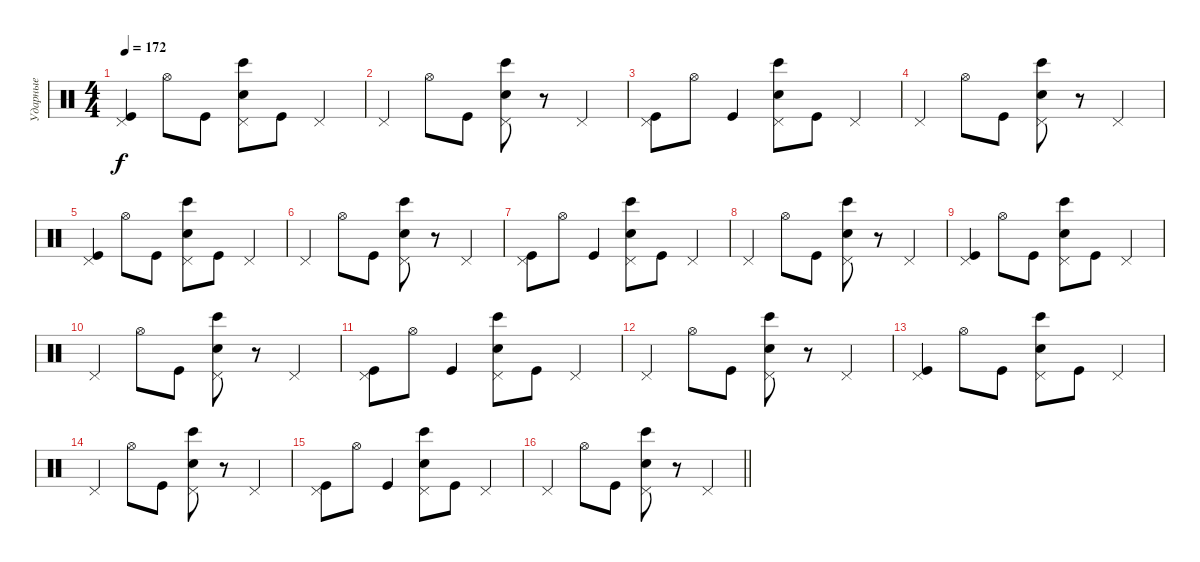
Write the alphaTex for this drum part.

\track ("Ударные" "Ударные") {instrument percussion}
\staff {score}
\articulation defaults
\ts (4 4)
\tempo 172
\clef neutral
\ks c
("Pedal Hi-Hat (hit)" "Kick (hit)").4{dy f} "Hi-Hat (open)".8 "Kick (hit)".8 ("Pedal Hi-Hat (hit)" "Hand Clap (hit)" "Bongo High (hit)").8 "Kick (hit)".8 "Pedal Hi-Hat (hit)".4 |
"Pedal Hi-Hat (hit)".4 "Hi-Hat (open)".8 "Kick (hit)".8 ("Pedal Hi-Hat (hit)" "Hand Clap (hit)" "Bongo High (hit)").8 r.8 "Pedal Hi-Hat (hit)".4 |
("Pedal Hi-Hat (hit)" "Kick (hit)").8 "Hi-Hat (open)".8 "Kick (hit)".4 ("Pedal Hi-Hat (hit)" "Hand Clap (hit)" "Bongo High (hit)").8 "Kick (hit)".8 "Pedal Hi-Hat (hit)".4 |
"Pedal Hi-Hat (hit)".4 "Hi-Hat (open)".8 "Kick (hit)".8 ("Pedal Hi-Hat (hit)" "Hand Clap (hit)" "Bongo High (hit)").8 r.8 "Pedal Hi-Hat (hit)".4 |
("Pedal Hi-Hat (hit)" "Kick (hit)").4 "Hi-Hat (open)".8 "Kick (hit)".8 ("Pedal Hi-Hat (hit)" "Hand Clap (hit)" "Bongo High (hit)").8 "Kick (hit)".8 "Pedal Hi-Hat (hit)".4 |
"Pedal Hi-Hat (hit)".4 "Hi-Hat (open)".8 "Kick (hit)".8 ("Pedal Hi-Hat (hit)" "Hand Clap (hit)" "Bongo High (hit)").8 r.8 "Pedal Hi-Hat (hit)".4 |
("Pedal Hi-Hat (hit)" "Kick (hit)").8 "Hi-Hat (open)".8 "Kick (hit)".4 ("Pedal Hi-Hat (hit)" "Hand Clap (hit)" "Bongo High (hit)").8 "Kick (hit)".8 "Pedal Hi-Hat (hit)".4 |
"Pedal Hi-Hat (hit)".4 "Hi-Hat (open)".8 "Kick (hit)".8 ("Pedal Hi-Hat (hit)" "Hand Clap (hit)" "Bongo High (hit)").8 r.8 "Pedal Hi-Hat (hit)".4 |
("Pedal Hi-Hat (hit)" "Kick (hit)").4 "Hi-Hat (open)".8 "Kick (hit)".8 ("Pedal Hi-Hat (hit)" "Hand Clap (hit)" "Bongo High (hit)").8 "Kick (hit)".8 "Pedal Hi-Hat (hit)".4 |
"Pedal Hi-Hat (hit)".4 "Hi-Hat (open)".8 "Kick (hit)".8 ("Pedal Hi-Hat (hit)" "Hand Clap (hit)" "Bongo High (hit)").8 r.8 "Pedal Hi-Hat (hit)".4 |
("Pedal Hi-Hat (hit)" "Kick (hit)").8 "Hi-Hat (open)".8 "Kick (hit)".4 ("Pedal Hi-Hat (hit)" "Hand Clap (hit)" "Bongo High (hit)").8 "Kick (hit)".8 "Pedal Hi-Hat (hit)".4 |
"Pedal Hi-Hat (hit)".4 "Hi-Hat (open)".8 "Kick (hit)".8 ("Pedal Hi-Hat (hit)" "Hand Clap (hit)" "Bongo High (hit)").8 r.8 "Pedal Hi-Hat (hit)".4 |
("Pedal Hi-Hat (hit)" "Kick (hit)").4 "Hi-Hat (open)".8 "Kick (hit)".8 ("Pedal Hi-Hat (hit)" "Hand Clap (hit)" "Bongo High (hit)").8 "Kick (hit)".8 "Pedal Hi-Hat (hit)".4 |
"Pedal Hi-Hat (hit)".4 "Hi-Hat (open)".8 "Kick (hit)".8 ("Pedal Hi-Hat (hit)" "Hand Clap (hit)" "Bongo High (hit)").8 r.8 "Pedal Hi-Hat (hit)".4 |
("Pedal Hi-Hat (hit)" "Kick (hit)").8 "Hi-Hat (open)".8 "Kick (hit)".4 ("Pedal Hi-Hat (hit)" "Hand Clap (hit)" "Bongo High (hit)").8 "Kick (hit)".8 "Pedal Hi-Hat (hit)".4 |
\barLineRight lightlight "Pedal Hi-Hat (hit)".4 "Hi-Hat (open)".8 "Kick (hit)".8
("Pedal Hi-Hat (hit)" "Hand Clap (hit)" "Bongo High (hit)").8 r.8 "Pedal Hi-Hat (hit)".4
